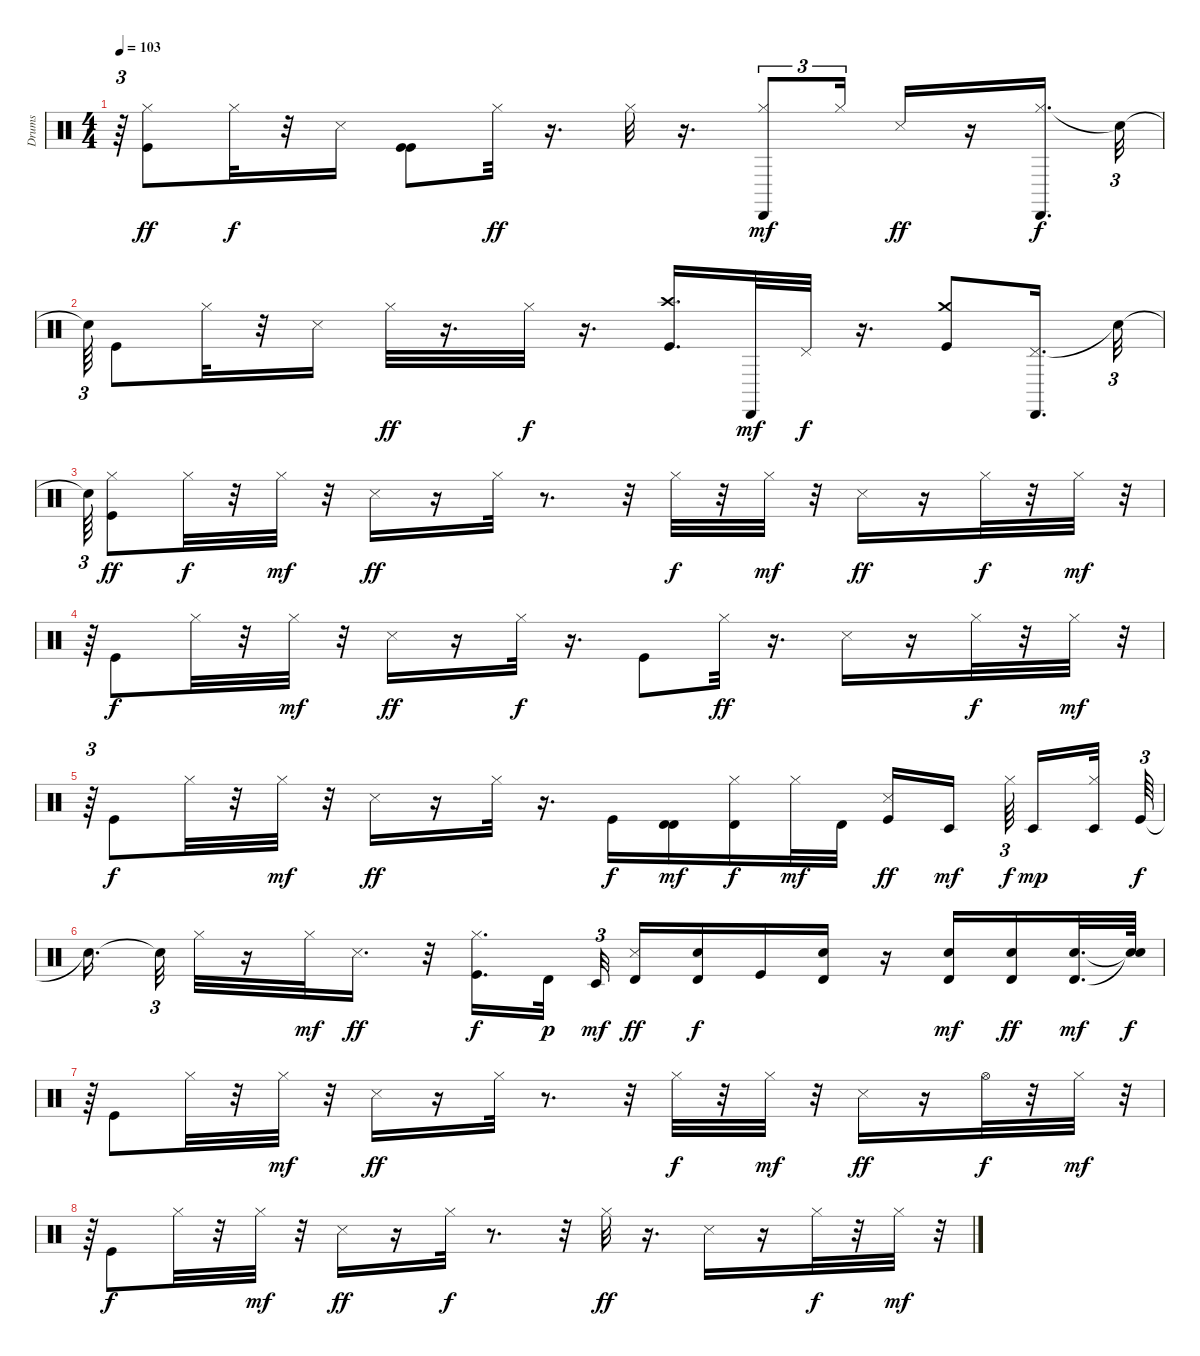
\track ("Drums" "Drums") {instrument percussion}
\staff {score}
\articulation defaults
\ts (4 4)
\tempo 103
\clef neutral
\ks c
r.64{tu (3 2) dy mp} ("Kick (hit)" "Hi-Hat (closed)").8{dy ff} "Hi-Hat (closed)".32{dy f} r.32 "Snare (side stick) 3".16 ("Kick (hit)" "Kick (hit)").8 "Hi-Hat (closed)".32{dy ff} r.16{d} "Hi-Hat (closed)".32 r.16{d} ("Cabasa (hit)" "Hi-Hat (closed)").8{tu (3 2) dy mf} "Hi-Hat (closed)".16{tu (3 2)} "Snare (side stick) 3".16{dy ff} r.16 ("Hi-Hat (closed)" "Cabasa (hit)").16{d dy f} "Snare (hit)"{t}.32{tu (3 2)} |
"Snare (hit)"{t}.64{tu (3 2)} "Kick (hit)".8 "Hi-Hat (closed)".32 r.32 "Snare (side stick) 3".16 "Hi-Hat (closed)".32{dy ff} r.16{d} "Hi-Hat (closed)".32{dy f} r.16{d} ("Crash high (hit)" "Kick (hit)").16{d} "Cabasa (hit)".32{dy mf} "Pedal Hi-Hat (hit)".32{dy f} r.16{d} ("Crash medium (hit)" "Kick (hit)").8 ("Pedal Hi-Hat (hit)" "Cabasa (hit)").16{d} "Snare (hit)"{t}.32{tu (3 2)} |
"Snare (hit)"{t}.64{tu (3 2)} ("Kick (hit)" "Hi-Hat (closed)").8{dy ff} "Hi-Hat (closed)".32{dy f} r.32 "Hi-Hat (closed)".32{dy mf} r.32 "Snare (side stick) 3".16{dy ff} r.16 "Hi-Hat (closed)".32 r.8{d} r.32 "Hi-Hat (closed)".32{dy f} r.32 "Hi-Hat (closed)".32{dy mf} r.32 "Snare (side stick) 3".16{dy ff} r.16 "Hi-Hat (closed)".32{dy f} r.32 "Hi-Hat (closed)".32{dy mf} r.32{tu (3 2)} |
r.64{tu (3 2)} "Kick (hit)".8{dy f} "Hi-Hat (closed)".32 r.32 "Hi-Hat (closed)".32{dy mf} r.32 "Snare (side stick) 3".16{dy ff} r.16 "Hi-Hat (closed)".32{dy f} r.16{d} "Kick (hit)".8 "Hi-Hat (closed)".32{dy ff} r.16{d} "Snare (side stick) 3".16 r.16 "Hi-Hat (closed)".32{dy f} r.32 "Hi-Hat (closed)".32{dy mf} r.32{tu (3 2)} |
r.64{tu (3 2)} "Kick (hit)".8{dy f} "Hi-Hat (closed)".32 r.32 "Hi-Hat (closed)".32{dy mf} r.32 "Snare (side stick) 3".16{dy ff} r.16 "Hi-Hat (closed)".32 r.16{d} "Kick (hit)".16{dy f} ("Timbale high (hit)" "Timbale high (hit)").16{dy mf} ("Hi-Hat (closed)" "Timbale high (hit)").16{dy f} "Hi-Hat (closed)".32{dy mf} "Timbale high (hit)".32 ("Kick (hit)" "Snare (side stick) 3").16{dy ff} "Timbale low (hit)".16{dy mf beam splitsecondary} "Hi-Hat (closed)".64{tu (3 2) dy f beam splitsecondary} "Timbale low (hit)".16{dy mp} ("Hi-Hat (closed)" "Timbale low (hit)").32 "Kick (hit)".64{tu (3 2) dy f} |
"Snare (hit)"{t}.16{d beam splitsecondary} "Snare (hit)"{t}.32{tu (3 2)} "Hi-Hat (closed)".32 r.16 "Hi-Hat (closed)".32{dy mf} "Snare (side stick) 3".16{d dy ff} r.32 ("Kick (hit)" "Hi-Hat (closed)").16{d dy f} "Timbale high (hit)".32{dy p} "Timbale low (hit)".32{tu (3 2) dy mf} ("Snare (side stick) 3" "Timbale high (hit)").16{dy ff} ("Electric Snare (hit)" "Timbale high (hit)").16{dy f} "Kick (hit)".16 ("Electric Snare (hit)" "Timbale high (hit)").16 r.16 ("Electric Snare (hit)" "Timbale high (hit)").16{dy mf} ("Electric Snare (hit)" "Timbale high (hit)").16{dy ff} ("Electric Snare (hit)" "Timbale high (hit)").32{d dy mf} ("Snare (hit)"{t} "Snare (hit)"{t}).64{dy f} |
r.64{tu (3 2)} "Kick (hit)".8 "Hi-Hat (closed)".32 r.32 "Hi-Hat (closed)".32{dy mf} r.32 "Snare (side stick) 3".16{dy ff} r.16 "Hi-Hat (closed)".32 r.8{d} r.32 "Hi-Hat (closed)".32{dy f} r.32 "Hi-Hat (closed)".32{dy mf} r.32 "Snare (side stick) 3".16{dy ff} r.16 "Hi-Hat (open)".32{dy f} r.32 "Hi-Hat (closed)".32{dy mf} r.32{tu (3 2)} |
r.64{tu (3 2)} "Kick (hit)".8{dy f} "Hi-Hat (closed)".32 r.32 "Hi-Hat (closed)".32{dy mf} r.32 "Snare (side stick) 3".16{dy ff} r.16 "Hi-Hat (closed)".32{dy f} r.8{d} r.32 "Hi-Hat (closed)".32{dy ff} r.16{d} "Snare (side stick) 3".16 r.16 "Hi-Hat (closed)".32{dy f} r.32 "Hi-Hat (closed)".32{dy mf} r.32{tu (3 2)}
